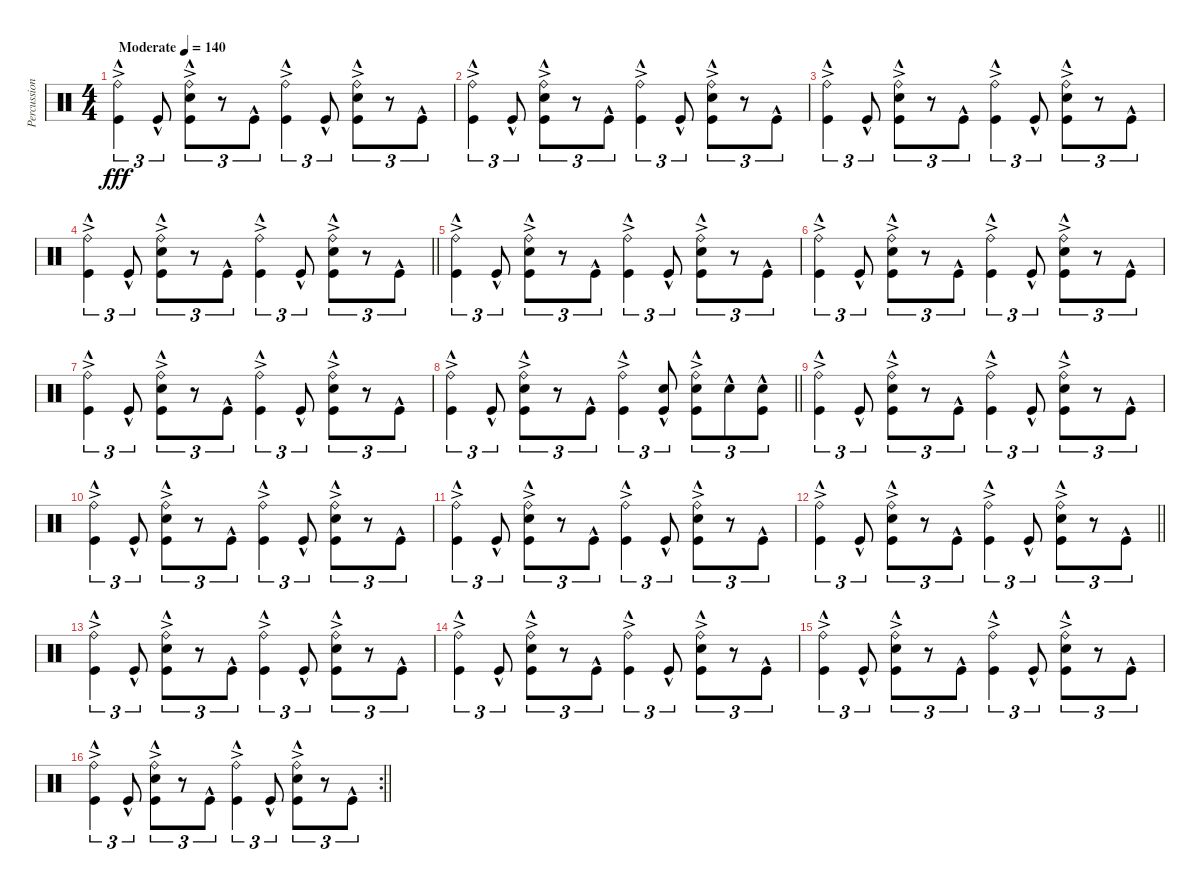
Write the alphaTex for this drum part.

\track ("Percussion" "Percussion") {instrument percussion}
\staff {score}
\articulation defaults
\ts (4 4)
\tempo (140 "Moderate")
\clef neutral
\ks c
("Ride (bell)"{ac} "Kick (hit)"{hac}).4{tu (3 2) dy fff} "Kick (hit)"{hac}.8{tu (3 2)} ("Ride (bell)"{ac} "Electric Snare (hit)" "Kick (hit)"{hac}).8{tu (3 2)} r.8{tu (3 2)} "Kick (hit)"{hac}.8{tu (3 2)} ("Ride (bell)"{ac} "Kick (hit)"{hac}).4{tu (3 2)} "Kick (hit)"{hac}.8{tu (3 2)} ("Ride (bell)"{ac} "Electric Snare (hit)" "Kick (hit)"{hac}).8{tu (3 2)} r.8{tu (3 2)} "Kick (hit)"{hac}.8{tu (3 2)} |
("Ride (bell)"{ac} "Kick (hit)"{hac}).4{tu (3 2)} "Kick (hit)"{hac}.8{tu (3 2)} ("Ride (bell)"{ac} "Electric Snare (hit)" "Kick (hit)"{hac}).8{tu (3 2)} r.8{tu (3 2)} "Kick (hit)"{hac}.8{tu (3 2)} ("Ride (bell)"{ac} "Kick (hit)"{hac}).4{tu (3 2)} "Kick (hit)"{hac}.8{tu (3 2)} ("Ride (bell)"{ac} "Electric Snare (hit)" "Kick (hit)"{hac}).8{tu (3 2)} r.8{tu (3 2)} "Kick (hit)"{hac}.8{tu (3 2)} |
("Ride (bell)"{ac} "Kick (hit)"{hac}).4{tu (3 2)} "Kick (hit)"{hac}.8{tu (3 2)} ("Ride (bell)"{ac} "Electric Snare (hit)" "Kick (hit)"{hac}).8{tu (3 2)} r.8{tu (3 2)} "Kick (hit)"{hac}.8{tu (3 2)} ("Ride (bell)"{ac} "Kick (hit)"{hac}).4{tu (3 2)} "Kick (hit)"{hac}.8{tu (3 2)} ("Ride (bell)"{ac} "Electric Snare (hit)" "Kick (hit)"{hac}).8{tu (3 2)} r.8{tu (3 2)} "Kick (hit)"{hac}.8{tu (3 2)} |
\barLineRight lightlight
("Ride (bell)"{ac} "Kick (hit)"{hac}).4{tu (3 2)} "Kick (hit)"{hac}.8{tu (3 2)} ("Ride (bell)"{ac} "Electric Snare (hit)" "Kick (hit)"{hac}).8{tu (3 2)} r.8{tu (3 2)} "Kick (hit)"{hac}.8{tu (3 2)} ("Ride (bell)"{ac} "Kick (hit)"{hac}).4{tu (3 2)} "Kick (hit)"{hac}.8{tu (3 2)} ("Ride (bell)"{ac} "Electric Snare (hit)" "Kick (hit)"{hac}).8{tu (3 2)} r.8{tu (3 2)} "Kick (hit)"{hac}.8{tu (3 2)} |
("Ride (bell)"{ac} "Kick (hit)"{hac}).4{tu (3 2)} "Kick (hit)"{hac}.8{tu (3 2)} ("Ride (bell)"{ac} "Electric Snare (hit)" "Kick (hit)"{hac}).8{tu (3 2)} r.8{tu (3 2)} "Kick (hit)"{hac}.8{tu (3 2)} ("Ride (bell)"{ac} "Kick (hit)"{hac}).4{tu (3 2)} "Kick (hit)"{hac}.8{tu (3 2)} ("Ride (bell)"{ac} "Electric Snare (hit)" "Kick (hit)"{hac}).8{tu (3 2)} r.8{tu (3 2)} "Kick (hit)"{hac}.8{tu (3 2)} |
("Ride (bell)"{ac} "Kick (hit)"{hac}).4{tu (3 2)} "Kick (hit)"{hac}.8{tu (3 2)} ("Ride (bell)"{ac} "Electric Snare (hit)" "Kick (hit)"{hac}).8{tu (3 2)} r.8{tu (3 2)} "Kick (hit)"{hac}.8{tu (3 2)} ("Ride (bell)"{ac} "Kick (hit)"{hac}).4{tu (3 2)} "Kick (hit)"{hac}.8{tu (3 2)} ("Ride (bell)"{ac} "Electric Snare (hit)" "Kick (hit)"{hac}).8{tu (3 2)} r.8{tu (3 2)} "Kick (hit)"{hac}.8{tu (3 2)} |
("Ride (bell)"{ac} "Kick (hit)"{hac}).4{tu (3 2)} "Kick (hit)"{hac}.8{tu (3 2)} ("Ride (bell)"{ac} "Electric Snare (hit)" "Kick (hit)"{hac}).8{tu (3 2)} r.8{tu (3 2)} "Kick (hit)"{hac}.8{tu (3 2)} ("Ride (bell)"{ac} "Kick (hit)"{hac}).4{tu (3 2)} "Kick (hit)"{hac}.8{tu (3 2)} ("Ride (bell)"{ac} "Electric Snare (hit)" "Kick (hit)"{hac}).8{tu (3 2)} r.8{tu (3 2)} "Kick (hit)"{hac}.8{tu (3 2)} |
\barLineRight lightlight
("Ride (bell)"{ac} "Kick (hit)"{hac}).4{tu (3 2)} "Kick (hit)"{hac}.8{tu (3 2)} ("Ride (bell)"{ac} "Electric Snare (hit)" "Kick (hit)"{hac}).8{tu (3 2)} r.8{tu (3 2)} "Kick (hit)"{hac}.8{tu (3 2)} ("Ride (bell)"{ac} "Kick (hit)"{hac}).4{tu (3 2)} ("Electric Snare (hit)"{hac} "Kick (hit)"{hac}).8{tu (3 2)} ("Ride (bell)"{ac} "Electric Snare (hit)"{hac} "Kick (hit)"{hac}).8{tu (3 2)} "Electric Snare (hit)"{hac}.8{tu (3 2)} ("Electric Snare (hit)"{hac} "Kick (hit)"{hac}).8{tu (3 2)} |
("Ride (bell)"{ac} "Kick (hit)"{hac}).4{tu (3 2)} "Kick (hit)"{hac}.8{tu (3 2)} ("Ride (bell)"{ac} "Electric Snare (hit)" "Kick (hit)"{hac}).8{tu (3 2)} r.8{tu (3 2)} "Kick (hit)"{hac}.8{tu (3 2)} ("Ride (bell)"{ac} "Kick (hit)"{hac}).4{tu (3 2)} "Kick (hit)"{hac}.8{tu (3 2)} ("Ride (bell)"{ac} "Electric Snare (hit)" "Kick (hit)"{hac}).8{tu (3 2)} r.8{tu (3 2)} "Kick (hit)"{hac}.8{tu (3 2)} |
("Ride (bell)"{ac} "Kick (hit)"{hac}).4{tu (3 2)} "Kick (hit)"{hac}.8{tu (3 2)} ("Ride (bell)"{ac} "Electric Snare (hit)" "Kick (hit)"{hac}).8{tu (3 2)} r.8{tu (3 2)} "Kick (hit)"{hac}.8{tu (3 2)} ("Ride (bell)"{ac} "Kick (hit)"{hac}).4{tu (3 2)} "Kick (hit)"{hac}.8{tu (3 2)} ("Ride (bell)"{ac} "Electric Snare (hit)" "Kick (hit)"{hac}).8{tu (3 2)} r.8{tu (3 2)} "Kick (hit)"{hac}.8{tu (3 2)} |
("Ride (bell)"{ac} "Kick (hit)"{hac}).4{tu (3 2)} "Kick (hit)"{hac}.8{tu (3 2)} ("Ride (bell)"{ac} "Electric Snare (hit)" "Kick (hit)"{hac}).8{tu (3 2)} r.8{tu (3 2)} "Kick (hit)"{hac}.8{tu (3 2)} ("Ride (bell)"{ac} "Kick (hit)"{hac}).4{tu (3 2)} "Kick (hit)"{hac}.8{tu (3 2)} ("Ride (bell)"{ac} "Electric Snare (hit)" "Kick (hit)"{hac}).8{tu (3 2)} r.8{tu (3 2)} "Kick (hit)"{hac}.8{tu (3 2)} |
\barLineRight lightlight
("Ride (bell)"{ac} "Kick (hit)"{hac}).4{tu (3 2)} "Kick (hit)"{hac}.8{tu (3 2)} ("Ride (bell)"{ac} "Electric Snare (hit)" "Kick (hit)"{hac}).8{tu (3 2)} r.8{tu (3 2)} "Kick (hit)"{hac}.8{tu (3 2)} ("Ride (bell)"{ac} "Kick (hit)"{hac}).4{tu (3 2)} "Kick (hit)"{hac}.8{tu (3 2)} ("Ride (bell)"{ac} "Electric Snare (hit)" "Kick (hit)"{hac}).8{tu (3 2)} r.8{tu (3 2)} "Kick (hit)"{hac}.8{tu (3 2)} |
("Ride (bell)"{ac} "Kick (hit)"{hac}).4{tu (3 2)} "Kick (hit)"{hac}.8{tu (3 2)} ("Ride (bell)"{ac} "Electric Snare (hit)" "Kick (hit)"{hac}).8{tu (3 2)} r.8{tu (3 2)} "Kick (hit)"{hac}.8{tu (3 2)} ("Ride (bell)"{ac} "Kick (hit)"{hac}).4{tu (3 2)} "Kick (hit)"{hac}.8{tu (3 2)} ("Ride (bell)"{ac} "Electric Snare (hit)" "Kick (hit)"{hac}).8{tu (3 2)} r.8{tu (3 2)} "Kick (hit)"{hac}.8{tu (3 2)} |
("Ride (bell)"{ac} "Kick (hit)"{hac}).4{tu (3 2)} "Kick (hit)"{hac}.8{tu (3 2)} ("Ride (bell)"{ac} "Electric Snare (hit)" "Kick (hit)"{hac}).8{tu (3 2)} r.8{tu (3 2)} "Kick (hit)"{hac}.8{tu (3 2)} ("Ride (bell)"{ac} "Kick (hit)"{hac}).4{tu (3 2)} "Kick (hit)"{hac}.8{tu (3 2)} ("Ride (bell)"{ac} "Electric Snare (hit)" "Kick (hit)"{hac}).8{tu (3 2)} r.8{tu (3 2)} "Kick (hit)"{hac}.8{tu (3 2)} |
("Ride (bell)"{ac} "Kick (hit)"{hac}).4{tu (3 2)} "Kick (hit)"{hac}.8{tu (3 2)} ("Ride (bell)"{ac} "Electric Snare (hit)" "Kick (hit)"{hac}).8{tu (3 2)} r.8{tu (3 2)} "Kick (hit)"{hac}.8{tu (3 2)} ("Ride (bell)"{ac} "Kick (hit)"{hac}).4{tu (3 2)} "Kick (hit)"{hac}.8{tu (3 2)} ("Ride (bell)"{ac} "Electric Snare (hit)" "Kick (hit)"{hac}).8{tu (3 2)} r.8{tu (3 2)} "Kick (hit)"{hac}.8{tu (3 2)} |
\rc 2
\barLineRight lightlight
("Ride (bell)"{ac} "Kick (hit)"{hac}).4{tu (3 2)} "Kick (hit)"{hac}.8{tu (3 2)} ("Ride (bell)"{ac} "Electric Snare (hit)" "Kick (hit)"{hac}).8{tu (3 2)} r.8{tu (3 2)} "Kick (hit)"{hac}.8{tu (3 2)} ("Ride (bell)"{ac} "Kick (hit)"{hac}).4{tu (3 2)} "Kick (hit)"{hac}.8{tu (3 2)} ("Ride (bell)"{ac} "Electric Snare (hit)" "Kick (hit)"{hac}).8{tu (3 2)} r.8{tu (3 2)} "Kick (hit)"{hac}.8{tu (3 2)}
